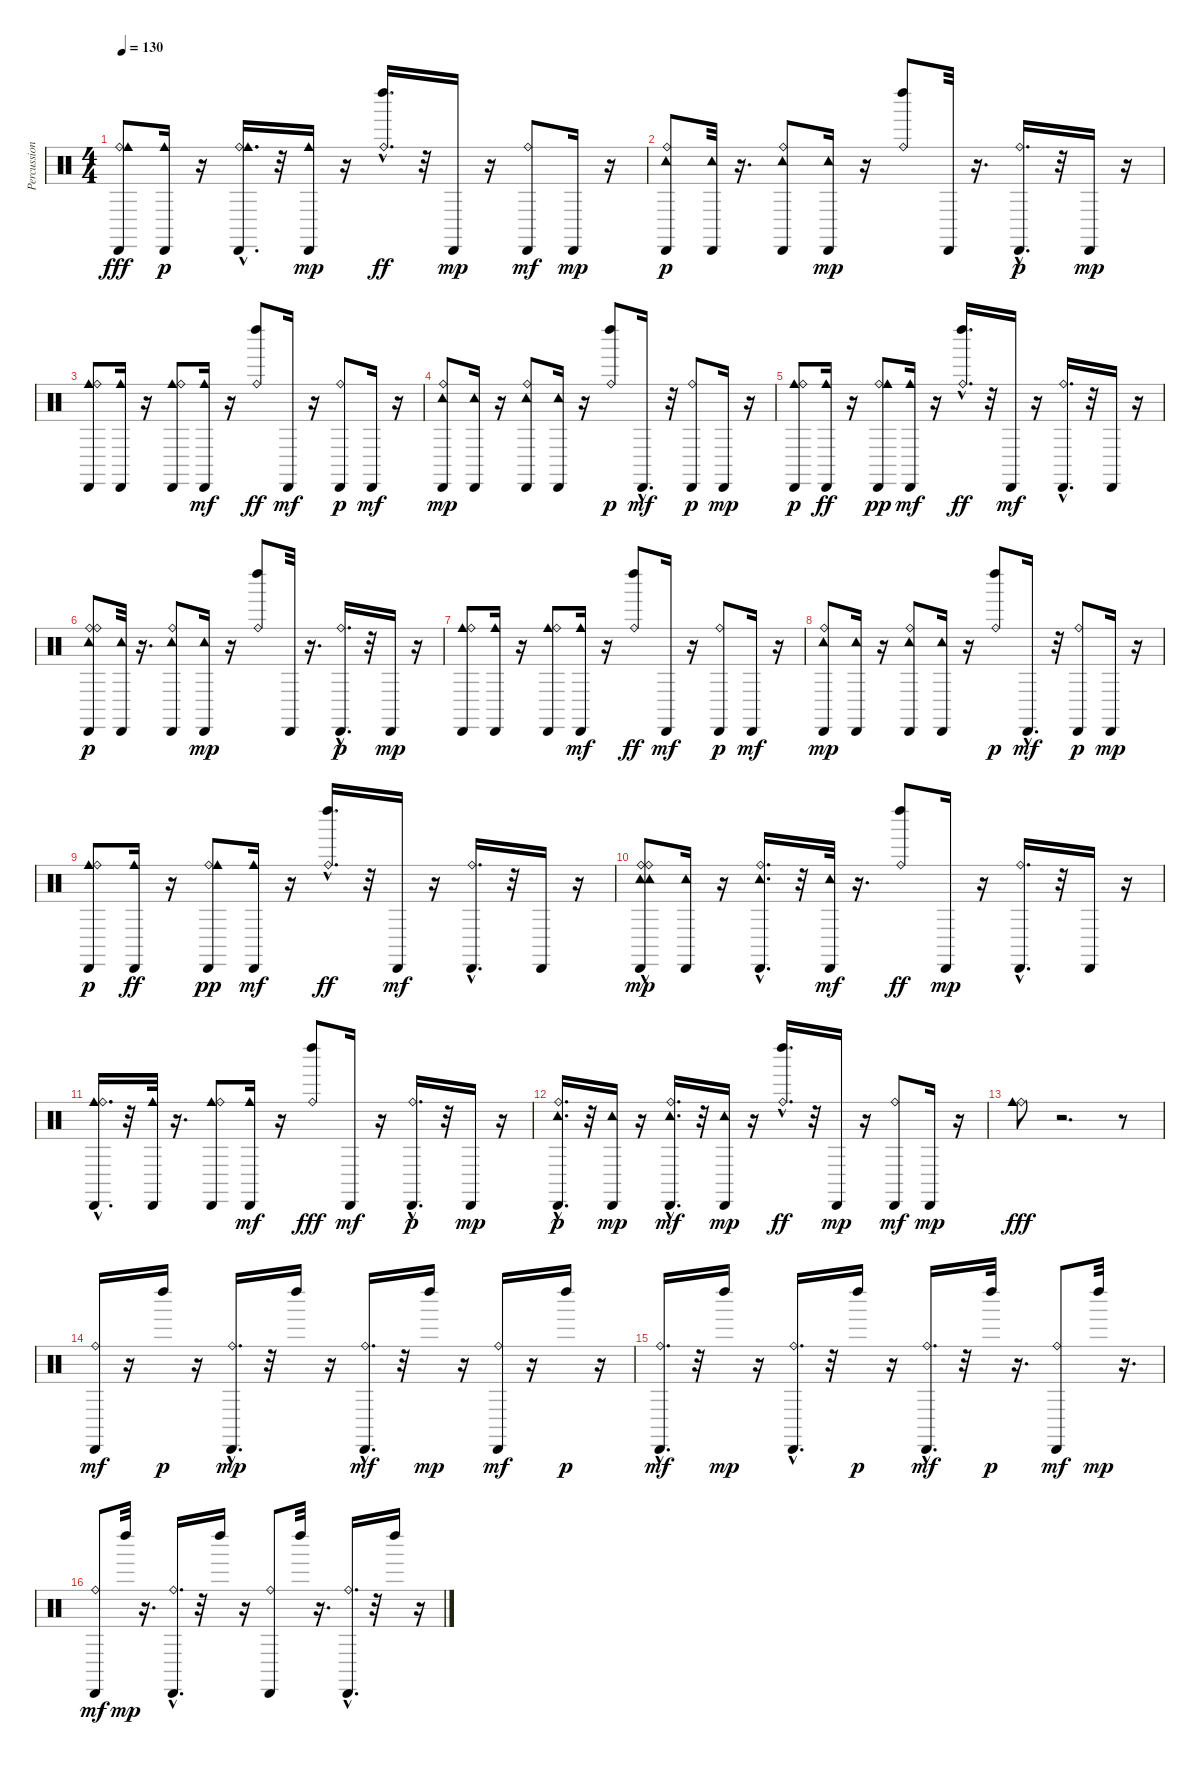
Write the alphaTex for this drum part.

\track ("Percussion" "Percussion") {instrument percussion}
\staff {score}
\articulation defaults
\ts (4 4)
\tempo 130
\clef neutral
\ks c
("Ride (bell)" "Cowbell medium (hit)" "Cabasa (hit)").8{dy fff} ("Cabasa (hit)" "Cowbell medium (hit)").16{dy p} r.16 ("Ride (bell)"{hac} "Cabasa (hit)" "Cowbell medium (hit)").16{d} r.32 ("Cowbell medium (hit)" "Cabasa (hit)").16{dy mp} r.16 ("Ride (bell)"{hac} "Left Maraca (hit)").16{d dy ff} r.32 "Cabasa (hit)".16{dy mp} r.16 ("Ride (bell)" "Cabasa (hit)").8{dy mf} "Cabasa (hit)".16{dy mp} r.16 |
("Tambourine (hit)" "Cabasa (hit)" "Ride (bell)").8{dy p} ("Tambourine (hit)" "Cabasa (hit)").32 r.16{d} ("Cabasa (hit)" "Tambourine (hit)" "Ride (bell)").8 ("Cabasa (hit)" "Tambourine (hit)").16{dy mp} r.16 ("Left Maraca (hit)" "Ride (bell)").8 "Cabasa (hit)".32 r.16{d} ("Cabasa (hit)" "Ride (bell)"{hac}).16{d dy p} r.32 "Cabasa (hit)".16{dy mp} r.16 |
("Cowbell medium (hit)" "Ride (bell)" "Cabasa (hit)").8 ("Cabasa (hit)" "Cowbell medium (hit)").16 r.16 ("Cabasa (hit)" "Cowbell medium (hit)" "Ride (bell)").8 ("Cowbell medium (hit)" "Cabasa (hit)").16{dy mf} r.16 ("Ride (bell)" "Left Maraca (hit)").8{dy ff} "Cabasa (hit)".16{dy mf} r.16 ("Cabasa (hit)" "Ride (bell)").8{dy p} "Cabasa (hit)".16{dy mf} r.16 |
("Tambourine (hit)" "Cabasa (hit)" "Ride (bell)").8{dy mp} ("Cabasa (hit)" "Tambourine (hit)").16 r.16 ("Cabasa (hit)" "Tambourine (hit)" "Ride (bell)").8 ("Tambourine (hit)" "Cabasa (hit)").16 r.16 ("Left Maraca (hit)" "Ride (bell)").8{dy p} "Cabasa (hit)"{hac}.16{d dy mf} r.32 ("Cabasa (hit)" "Ride (bell)").8{dy p} "Cabasa (hit)".16{dy mp} r.16 |
("Cowbell medium (hit)" "Cabasa (hit)" "Ride (bell)").8{dy p} ("Cabasa (hit)" "Cowbell medium (hit)").16{dy ff} r.16 ("Cabasa (hit)" "Ride (bell)" "Cowbell medium (hit)").8{dy pp} ("Cowbell medium (hit)" "Cabasa (hit)").16{dy mf} r.16 ("Ride (bell)"{hac} "Left Maraca (hit)").16{d dy ff} r.32 "Cabasa (hit)".16{dy mf} r.16 ("Ride (bell)"{hac} "Cabasa (hit)").16{d} r.32 "Cabasa (hit)".16 r.16 |
("Ride (bell)" "Tambourine (hit)" "Cabasa (hit)" "Ride (bell)").8{dy p} ("Tambourine (hit)" "Cabasa (hit)").32 r.16{d} ("Cabasa (hit)" "Tambourine (hit)" "Ride (bell)").8 ("Cabasa (hit)" "Tambourine (hit)").16{dy mp} r.16 ("Left Maraca (hit)" "Ride (bell)").8 "Cabasa (hit)".32 r.16{d} ("Cabasa (hit)" "Ride (bell)"{hac}).16{d dy p} r.32 "Cabasa (hit)".16{dy mp} r.16 |
("Cowbell medium (hit)" "Ride (bell)" "Cabasa (hit)").8 ("Cabasa (hit)" "Cowbell medium (hit)").16 r.16 ("Cabasa (hit)" "Cowbell medium (hit)" "Ride (bell)").8 ("Cowbell medium (hit)" "Cabasa (hit)").16{dy mf} r.16 ("Ride (bell)" "Left Maraca (hit)").8{dy ff} "Cabasa (hit)".16{dy mf} r.16 ("Cabasa (hit)" "Ride (bell)").8{dy p} "Cabasa (hit)".16{dy mf} r.16 |
("Tambourine (hit)" "Cabasa (hit)" "Ride (bell)").8{dy mp} ("Cabasa (hit)" "Tambourine (hit)").16 r.16 ("Cabasa (hit)" "Tambourine (hit)" "Ride (bell)").8 ("Tambourine (hit)" "Cabasa (hit)").16 r.16 ("Left Maraca (hit)" "Ride (bell)").8{dy p} "Cabasa (hit)"{hac}.16{d dy mf} r.32 ("Cabasa (hit)" "Ride (bell)").8{dy p} "Cabasa (hit)".16{dy mp} r.16 |
("Cowbell medium (hit)" "Cabasa (hit)" "Ride (bell)").8{dy p} ("Cabasa (hit)" "Cowbell medium (hit)").16{dy ff} r.16 ("Cabasa (hit)" "Ride (bell)" "Cowbell medium (hit)").8{dy pp} ("Cowbell medium (hit)" "Cabasa (hit)").16{dy mf} r.16 ("Ride (bell)"{hac} "Left Maraca (hit)").16{d dy ff} r.32 "Cabasa (hit)".16{dy mf} r.16 ("Ride (bell)"{hac} "Cabasa (hit)").16{d} r.32 "Cabasa (hit)".16 r.16 |
("Ride (bell)" "Tambourine (hit)" "Tambourine (hit)" "Cabasa (hit)" "Ride (bell)"{hac}).8{dy mp} ("Tambourine (hit)" "Cabasa (hit)").16 r.16 ("Tambourine (hit)" "Cabasa (hit)" "Ride (bell)"{hac}).16{d} r.32 ("Tambourine (hit)" "Cabasa (hit)").32{dy mf} r.16{d} ("Ride (bell)" "Left Maraca (hit)").8{dy ff} "Cabasa (hit)".16{dy mp} r.16 ("Ride (bell)"{hac} "Cabasa (hit)").16{d} r.32 "Cabasa (hit)".16 r.16 |
("Cowbell medium (hit)" "Cabasa (hit)" "Ride (bell)"{hac}).16{d} r.32 ("Cowbell medium (hit)" "Cabasa (hit)").32 r.16{d} ("Cowbell medium (hit)" "Cabasa (hit)" "Ride (bell)").8 ("Cowbell medium (hit)" "Cabasa (hit)").16{dy mf} r.16 ("Ride (bell)" "Left Maraca (hit)").8{dy fff} "Cabasa (hit)".16{dy mf} r.16 ("Cabasa (hit)" "Ride (bell)"{hac}).16{d dy p} r.32 "Cabasa (hit)".16{dy mp} r.16 |
("Tambourine (hit)" "Cabasa (hit)" "Ride (bell)"{hac}).16{d dy p} r.32 ("Tambourine (hit)" "Cabasa (hit)").16{dy mp} r.16 ("Ride (bell)"{hac} "Tambourine (hit)" "Cabasa (hit)").16{d dy mf} r.32 ("Tambourine (hit)" "Cabasa (hit)").16{dy mp} r.16 ("Ride (bell)"{hac} "Left Maraca (hit)").16{d dy ff} r.32 "Cabasa (hit)".16{dy mp} r.16 ("Ride (bell)" "Cabasa (hit)").8{dy mf} "Cabasa (hit)".16{dy mp} r.16 |
("Ride (bell)" "Cowbell medium (hit)").8{dy fff} r.2{d} r.8 |
("Ride (bell)" "Cabasa (hit)").16{dy mf} r.16 "Left Maraca (hit)".16{dy p} r.16 ("Ride (bell)"{hac} "Cabasa (hit)").16{d dy mp} r.32 "Left Maraca (hit)".16 r.16 ("Ride (bell)"{hac} "Cabasa (hit)").16{d dy mf} r.32 "Left Maraca (hit)".16{dy mp} r.16 ("Cabasa (hit)" "Ride (bell)").16{dy mf} r.16 "Left Maraca (hit)".16{dy p} r.16 |
("Ride (bell)"{hac} "Cabasa (hit)").16{d dy mf} r.32 "Left Maraca (hit)".16{dy mp} r.16 ("Cabasa (hit)" "Ride (bell)"{hac}).16{d} r.32 "Left Maraca (hit)".16{dy p} r.16 ("Cabasa (hit)" "Ride (bell)"{hac}).16{d dy mf} r.32 "Left Maraca (hit)".32{dy p} r.16{d} ("Cabasa (hit)" "Ride (bell)").8{dy mf} "Left Maraca (hit)".32{dy mp} r.16{d} |
("Ride (bell)" "Cabasa (hit)").8{dy mf} "Left Maraca (hit)".32{dy mp} r.16{d} ("Cabasa (hit)" "Ride (bell)"{hac}).16{d} r.32 "Left Maraca (hit)".16 r.16 ("Cabasa (hit)" "Ride (bell)").8 "Left Maraca (hit)".32 r.16{d} ("Cabasa (hit)" "Ride (bell)"{hac}).16{d} r.32 "Left Maraca (hit)".16 r.16
